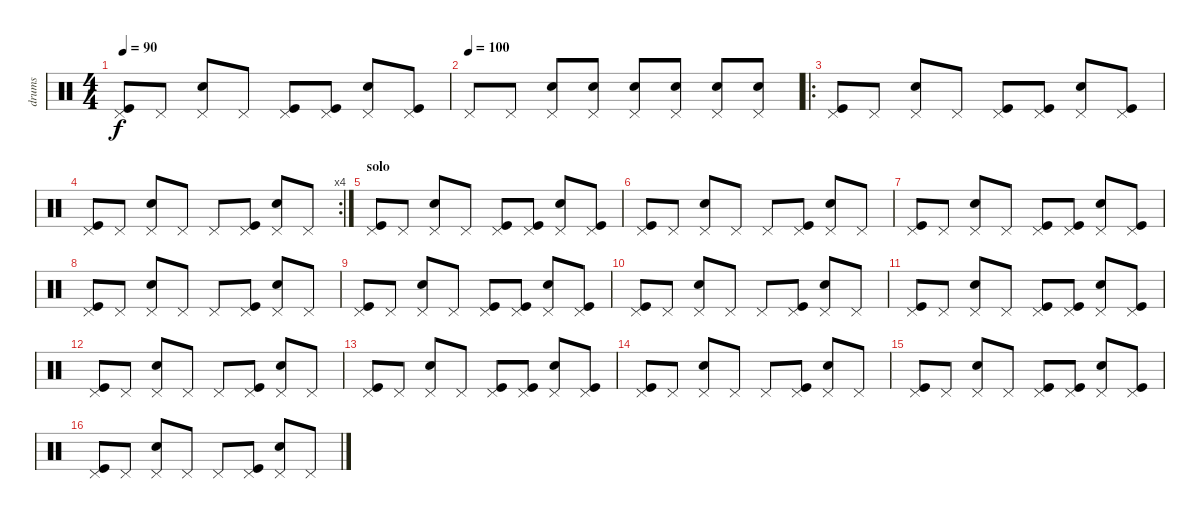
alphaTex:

\track ("drums" "drums") {instrument percussion}
\staff {score}
\articulation defaults
\ts (4 4)
\tempo 90
\clef neutral
\ks c
("Kick (hit)" "Pedal Hi-Hat (hit)").8{dy f} "Pedal Hi-Hat (hit)".8 ("Electric Snare (hit)" "Pedal Hi-Hat (hit)").8 "Pedal Hi-Hat (hit)".8 ("Kick (hit)" "Pedal Hi-Hat (hit)").8 ("Kick (hit)" "Pedal Hi-Hat (hit)").8 ("Electric Snare (hit)" "Pedal Hi-Hat (hit)").8 ("Kick (hit)" "Pedal Hi-Hat (hit)").8 |
\tempo (100)
"Pedal Hi-Hat (hit)".8 "Pedal Hi-Hat (hit)".8 ("Electric Snare (hit)" "Pedal Hi-Hat (hit)").8 ("Electric Snare (hit)" "Pedal Hi-Hat (hit)").8 ("Electric Snare (hit)" "Pedal Hi-Hat (hit)").8 ("Electric Snare (hit)" "Pedal Hi-Hat (hit)").8 ("Electric Snare (hit)" "Pedal Hi-Hat (hit)").8 ("Electric Snare (hit)" "Pedal Hi-Hat (hit)").8 |
\ro
("Kick (hit)" "Pedal Hi-Hat (hit)").8 "Pedal Hi-Hat (hit)".8 ("Electric Snare (hit)" "Pedal Hi-Hat (hit)").8 "Pedal Hi-Hat (hit)".8 ("Kick (hit)" "Pedal Hi-Hat (hit)").8 ("Kick (hit)" "Pedal Hi-Hat (hit)").8 ("Electric Snare (hit)" "Pedal Hi-Hat (hit)").8 ("Kick (hit)" "Pedal Hi-Hat (hit)").8 |
\rc 4
("Kick (hit)" "Pedal Hi-Hat (hit)").8 "Pedal Hi-Hat (hit)".8 ("Electric Snare (hit)" "Pedal Hi-Hat (hit)").8 "Pedal Hi-Hat (hit)".8 "Pedal Hi-Hat (hit)".8 ("Kick (hit)" "Pedal Hi-Hat (hit)").8 ("Electric Snare (hit)" "Pedal Hi-Hat (hit)").8 "Pedal Hi-Hat (hit)".8 |
\section ("" "solo")
("Kick (hit)" "Pedal Hi-Hat (hit)").8 "Pedal Hi-Hat (hit)".8 ("Electric Snare (hit)" "Pedal Hi-Hat (hit)").8 "Pedal Hi-Hat (hit)".8 ("Kick (hit)" "Pedal Hi-Hat (hit)").8 ("Kick (hit)" "Pedal Hi-Hat (hit)").8 ("Electric Snare (hit)" "Pedal Hi-Hat (hit)").8 ("Kick (hit)" "Pedal Hi-Hat (hit)").8 |
("Kick (hit)" "Pedal Hi-Hat (hit)").8 "Pedal Hi-Hat (hit)".8 ("Electric Snare (hit)" "Pedal Hi-Hat (hit)").8 "Pedal Hi-Hat (hit)".8 "Pedal Hi-Hat (hit)".8 ("Kick (hit)" "Pedal Hi-Hat (hit)").8 ("Electric Snare (hit)" "Pedal Hi-Hat (hit)").8 "Pedal Hi-Hat (hit)".8 |
("Kick (hit)" "Pedal Hi-Hat (hit)").8 "Pedal Hi-Hat (hit)".8 ("Electric Snare (hit)" "Pedal Hi-Hat (hit)").8 "Pedal Hi-Hat (hit)".8 ("Kick (hit)" "Pedal Hi-Hat (hit)").8 ("Kick (hit)" "Pedal Hi-Hat (hit)").8 ("Electric Snare (hit)" "Pedal Hi-Hat (hit)").8 ("Kick (hit)" "Pedal Hi-Hat (hit)").8 |
("Kick (hit)" "Pedal Hi-Hat (hit)").8 "Pedal Hi-Hat (hit)".8 ("Electric Snare (hit)" "Pedal Hi-Hat (hit)").8 "Pedal Hi-Hat (hit)".8 "Pedal Hi-Hat (hit)".8 ("Kick (hit)" "Pedal Hi-Hat (hit)").8 ("Electric Snare (hit)" "Pedal Hi-Hat (hit)").8 "Pedal Hi-Hat (hit)".8 |
("Kick (hit)" "Pedal Hi-Hat (hit)").8 "Pedal Hi-Hat (hit)".8 ("Electric Snare (hit)" "Pedal Hi-Hat (hit)").8 "Pedal Hi-Hat (hit)".8 ("Kick (hit)" "Pedal Hi-Hat (hit)").8 ("Kick (hit)" "Pedal Hi-Hat (hit)").8 ("Electric Snare (hit)" "Pedal Hi-Hat (hit)").8 ("Kick (hit)" "Pedal Hi-Hat (hit)").8 |
("Kick (hit)" "Pedal Hi-Hat (hit)").8 "Pedal Hi-Hat (hit)".8 ("Electric Snare (hit)" "Pedal Hi-Hat (hit)").8 "Pedal Hi-Hat (hit)".8 "Pedal Hi-Hat (hit)".8 ("Kick (hit)" "Pedal Hi-Hat (hit)").8 ("Electric Snare (hit)" "Pedal Hi-Hat (hit)").8 "Pedal Hi-Hat (hit)".8 |
("Kick (hit)" "Pedal Hi-Hat (hit)").8 "Pedal Hi-Hat (hit)".8 ("Electric Snare (hit)" "Pedal Hi-Hat (hit)").8 "Pedal Hi-Hat (hit)".8 ("Kick (hit)" "Pedal Hi-Hat (hit)").8 ("Kick (hit)" "Pedal Hi-Hat (hit)").8 ("Electric Snare (hit)" "Pedal Hi-Hat (hit)").8 ("Kick (hit)" "Pedal Hi-Hat (hit)").8 |
("Kick (hit)" "Pedal Hi-Hat (hit)").8 "Pedal Hi-Hat (hit)".8 ("Electric Snare (hit)" "Pedal Hi-Hat (hit)").8 "Pedal Hi-Hat (hit)".8 "Pedal Hi-Hat (hit)".8 ("Kick (hit)" "Pedal Hi-Hat (hit)").8 ("Electric Snare (hit)" "Pedal Hi-Hat (hit)").8 "Pedal Hi-Hat (hit)".8 |
("Kick (hit)" "Pedal Hi-Hat (hit)").8 "Pedal Hi-Hat (hit)".8 ("Electric Snare (hit)" "Pedal Hi-Hat (hit)").8 "Pedal Hi-Hat (hit)".8 ("Kick (hit)" "Pedal Hi-Hat (hit)").8 ("Kick (hit)" "Pedal Hi-Hat (hit)").8 ("Electric Snare (hit)" "Pedal Hi-Hat (hit)").8 ("Kick (hit)" "Pedal Hi-Hat (hit)").8 |
("Kick (hit)" "Pedal Hi-Hat (hit)").8 "Pedal Hi-Hat (hit)".8 ("Electric Snare (hit)" "Pedal Hi-Hat (hit)").8 "Pedal Hi-Hat (hit)".8 "Pedal Hi-Hat (hit)".8 ("Kick (hit)" "Pedal Hi-Hat (hit)").8 ("Electric Snare (hit)" "Pedal Hi-Hat (hit)").8 "Pedal Hi-Hat (hit)".8 |
("Kick (hit)" "Pedal Hi-Hat (hit)").8 "Pedal Hi-Hat (hit)".8 ("Electric Snare (hit)" "Pedal Hi-Hat (hit)").8 "Pedal Hi-Hat (hit)".8 ("Kick (hit)" "Pedal Hi-Hat (hit)").8 ("Kick (hit)" "Pedal Hi-Hat (hit)").8 ("Electric Snare (hit)" "Pedal Hi-Hat (hit)").8 ("Kick (hit)" "Pedal Hi-Hat (hit)").8 |
("Kick (hit)" "Pedal Hi-Hat (hit)").8 "Pedal Hi-Hat (hit)".8 ("Electric Snare (hit)" "Pedal Hi-Hat (hit)").8 "Pedal Hi-Hat (hit)".8 "Pedal Hi-Hat (hit)".8 ("Kick (hit)" "Pedal Hi-Hat (hit)").8 ("Electric Snare (hit)" "Pedal Hi-Hat (hit)").8 "Pedal Hi-Hat (hit)".8
